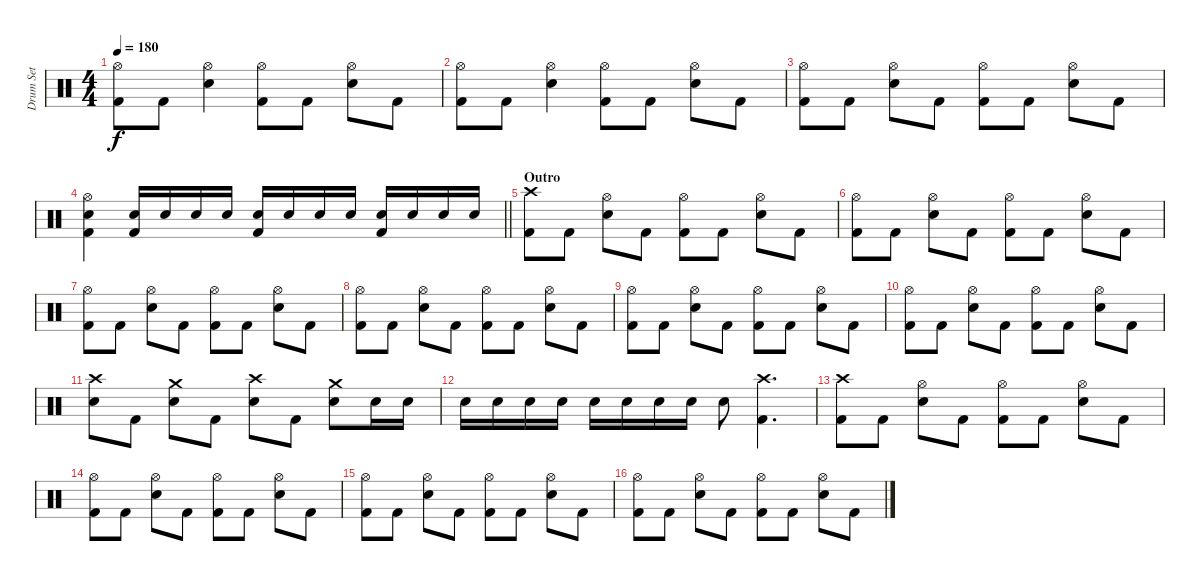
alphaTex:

\track ("Drum Set" "Drum Set") {instrument percussion}
\staff {score}
\articulation defaults
\ts (4 4)
\tempo 180
\clef neutral
\ks c
("Hi-Hat (open)" "Kick (hit) 2").8{dy f} "Kick (hit) 2".8 ("Hi-Hat (open)" "Snare (hit) 2").4 ("Hi-Hat (open)" "Kick (hit) 2").8 "Kick (hit) 2".8 ("Hi-Hat (open)" "Snare (hit) 2").8 "Kick (hit) 2".8 |
("Hi-Hat (open)" "Kick (hit) 2").8 "Kick (hit) 2".8 ("Hi-Hat (open)" "Snare (hit) 2").4 ("Hi-Hat (open)" "Kick (hit) 2").8 "Kick (hit) 2".8 ("Hi-Hat (open)" "Snare (hit) 2").8 "Kick (hit) 2".8 |
("Hi-Hat (open)" "Kick (hit) 2").8 "Kick (hit) 2".8 ("Hi-Hat (open)" "Snare (hit) 2").8 "Kick (hit) 2".8 ("Hi-Hat (open)" "Kick (hit) 2").8 "Kick (hit) 2".8 ("Hi-Hat (open)" "Snare (hit) 2").8 "Kick (hit) 2".8 |
\barLineRight lightlight
("Hi-Hat (open)" "Snare (hit) 2" "Kick (hit) 2").4 ("Snare (hit) 2" "Kick (hit) 2").16 "Snare (hit) 2".16 "Snare (hit) 2".16 "Snare (hit) 2".16 ("Snare (hit) 2" "Kick (hit) 2").16 "Snare (hit) 2".16 "Snare (hit) 2".16 "Snare (hit) 2".16 ("Snare (hit) 2" "Kick (hit) 2").16 "Snare (hit) 2".16 "Snare (hit) 2".16 "Snare (hit) 2".16 |
\section ("" "Outro")
("Crash high (hit)" "Kick (hit) 2").8 "Kick (hit) 2".8 ("Hi-Hat (open)" "Snare (hit) 2").8 "Kick (hit) 2".8 ("Hi-Hat (open)" "Kick (hit) 2").8 "Kick (hit) 2".8 ("Hi-Hat (open)" "Snare (hit) 2").8 "Kick (hit) 2".8 |
("Hi-Hat (open)" "Kick (hit) 2").8 "Kick (hit) 2".8 ("Hi-Hat (open)" "Snare (hit) 2").8 "Kick (hit) 2".8 ("Hi-Hat (open)" "Kick (hit) 2").8 "Kick (hit) 2".8 ("Hi-Hat (open)" "Snare (hit) 2").8 "Kick (hit) 2".8 |
("Hi-Hat (open)" "Kick (hit) 2").8 "Kick (hit) 2".8 ("Hi-Hat (open)" "Snare (hit) 2").8 "Kick (hit) 2".8 ("Hi-Hat (open)" "Kick (hit) 2").8 "Kick (hit) 2".8 ("Hi-Hat (open)" "Snare (hit) 2").8 "Kick (hit) 2".8 |
("Hi-Hat (open)" "Kick (hit) 2").8 "Kick (hit) 2".8 ("Hi-Hat (open)" "Snare (hit) 2").8 "Kick (hit) 2".8 ("Hi-Hat (open)" "Kick (hit) 2").8 "Kick (hit) 2".8 ("Hi-Hat (open)" "Snare (hit) 2").8 "Kick (hit) 2".8 |
("Hi-Hat (open)" "Kick (hit) 2").8 "Kick (hit) 2".8 ("Hi-Hat (open)" "Snare (hit) 2").8 "Kick (hit) 2".8 ("Hi-Hat (open)" "Kick (hit) 2").8 "Kick (hit) 2".8 ("Hi-Hat (open)" "Snare (hit) 2").8 "Kick (hit) 2".8 |
("Hi-Hat (open)" "Kick (hit) 2").8 "Kick (hit) 2".8 ("Hi-Hat (open)" "Snare (hit) 2").8 "Kick (hit) 2".8 ("Hi-Hat (open)" "Kick (hit) 2").8 "Kick (hit) 2".8 ("Hi-Hat (open)" "Snare (hit) 2").8 "Kick (hit) 2".8 |
("Crash high (hit)" "Snare (hit) 2").8 "Kick (hit) 2".8 ("Crash medium (hit)" "Snare (hit) 2").8 "Kick (hit) 2".8 ("Crash high (hit)" "Snare (hit) 2").8 "Kick (hit) 2".8 ("Crash medium (hit)" "Snare (hit) 2").8 "Snare (hit) 2".16 "Snare (hit) 2".16 |
"Snare (hit) 2".16 "Snare (hit) 2".16 "Snare (hit) 2".16 "Snare (hit) 2".16 "Snare (hit) 2".16 "Snare (hit) 2".16 "Snare (hit) 2".16 "Snare (hit) 2".16 "Snare (hit) 2".8 ("Crash high (hit)" "Kick (hit) 2").4{d} |
("Crash high (hit)" "Kick (hit) 2").8 "Kick (hit) 2".8 ("Hi-Hat (open)" "Snare (hit) 2").8 "Kick (hit) 2".8 ("Hi-Hat (open)" "Kick (hit) 2").8 "Kick (hit) 2".8 ("Hi-Hat (open)" "Snare (hit) 2").8 "Kick (hit) 2".8 |
("Hi-Hat (open)" "Kick (hit) 2").8 "Kick (hit) 2".8 ("Hi-Hat (open)" "Snare (hit) 2").8 "Kick (hit) 2".8 ("Hi-Hat (open)" "Kick (hit) 2").8 "Kick (hit) 2".8 ("Hi-Hat (open)" "Snare (hit) 2").8 "Kick (hit) 2".8 |
("Hi-Hat (open)" "Kick (hit) 2").8 "Kick (hit) 2".8 ("Hi-Hat (open)" "Snare (hit) 2").8 "Kick (hit) 2".8 ("Hi-Hat (open)" "Kick (hit) 2").8 "Kick (hit) 2".8 ("Hi-Hat (open)" "Snare (hit) 2").8 "Kick (hit) 2".8 |
("Hi-Hat (open)" "Kick (hit) 2").8 "Kick (hit) 2".8 ("Hi-Hat (open)" "Snare (hit) 2").8 "Kick (hit) 2".8 ("Hi-Hat (open)" "Kick (hit) 2").8 "Kick (hit) 2".8 ("Hi-Hat (open)" "Snare (hit) 2").8 "Kick (hit) 2".8
